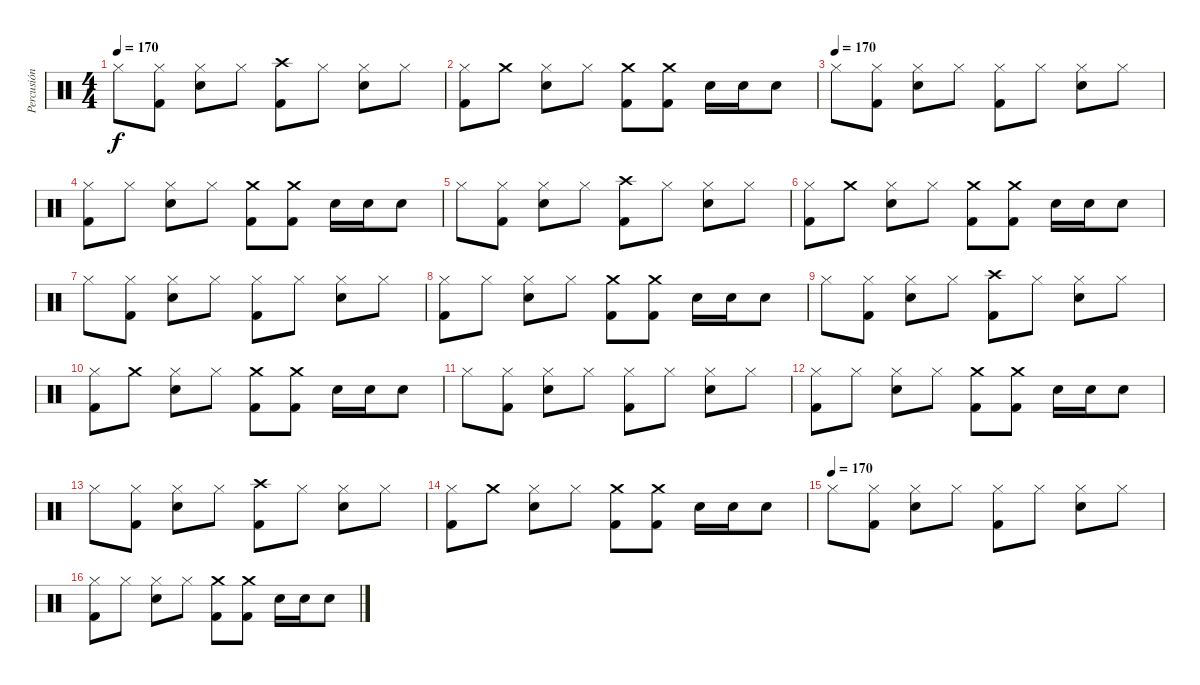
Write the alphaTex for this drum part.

\track ("Percusión" "Percusión") {instrument percussion}
\staff {score}
\articulation defaults
\ts (4 4)
\tempo 170
\clef neutral
\ks c "Hi-Hat (closed)".8{dy f}
("Hi-Hat (closed)" "Kick (hit) 2").8 ("Hi-Hat (closed)" "Electric Snare (hit)").8 "Hi-Hat (closed)".8 ("Crash high (hit)" "Kick (hit) 2").8 "Hi-Hat (closed)".8 ("Hi-Hat (closed)" "Electric Snare (hit)").8 "Hi-Hat (closed)".8 |
("Hi-Hat (closed)" "Kick (hit) 2").8 "Crash medium (hit)".8 ("Hi-Hat (closed)" "Electric Snare (hit)").8 "Hi-Hat (closed)".8 ("Crash medium (hit)" "Kick (hit) 2").8 ("Crash medium (hit)" "Kick (hit) 2").8 "Electric Snare (hit)".16 "Electric Snare (hit)".16 "Electric Snare (hit)".8 |
\tempo (170)
"Hi-Hat (closed)".8 ("Hi-Hat (closed)" "Kick (hit) 2").8 ("Hi-Hat (closed)" "Electric Snare (hit)").8 "Hi-Hat (closed)".8 ("Hi-Hat (closed)" "Kick (hit) 2").8 "Hi-Hat (closed)".8 ("Hi-Hat (closed)" "Electric Snare (hit)").8 "Hi-Hat (closed)".8 |
("Hi-Hat (closed)" "Kick (hit) 2").8 "Hi-Hat (closed)".8 ("Hi-Hat (closed)" "Electric Snare (hit)").8 "Hi-Hat (closed)".8 ("Crash medium (hit)" "Kick (hit) 2").8 ("Crash medium (hit)" "Kick (hit) 2").8 "Electric Snare (hit)".16 "Electric Snare (hit)".16 "Electric Snare (hit)".8 |
"Hi-Hat (closed)".8 ("Hi-Hat (closed)" "Kick (hit) 2").8 ("Hi-Hat (closed)" "Electric Snare (hit)").8 "Hi-Hat (closed)".8 ("Crash high (hit)" "Kick (hit) 2").8 "Hi-Hat (closed)".8 ("Hi-Hat (closed)" "Electric Snare (hit)").8 "Hi-Hat (closed)".8 |
("Hi-Hat (closed)" "Kick (hit) 2").8 "Crash medium (hit)".8 ("Hi-Hat (closed)" "Electric Snare (hit)").8 "Hi-Hat (closed)".8 ("Crash medium (hit)" "Kick (hit) 2").8 ("Crash medium (hit)" "Kick (hit) 2").8 "Electric Snare (hit)".16 "Electric Snare (hit)".16 "Electric Snare (hit)".8 |
"Hi-Hat (closed)".8 ("Hi-Hat (closed)" "Kick (hit) 2").8 ("Hi-Hat (closed)" "Electric Snare (hit)").8 "Hi-Hat (closed)".8 ("Hi-Hat (closed)" "Kick (hit) 2").8 "Hi-Hat (closed)".8 ("Hi-Hat (closed)" "Electric Snare (hit)").8 "Hi-Hat (closed)".8 |
("Hi-Hat (closed)" "Kick (hit) 2").8 "Hi-Hat (closed)".8 ("Hi-Hat (closed)" "Electric Snare (hit)").8 "Hi-Hat (closed)".8 ("Crash medium (hit)" "Kick (hit) 2").8 ("Crash medium (hit)" "Kick (hit) 2").8 "Electric Snare (hit)".16 "Electric Snare (hit)".16 "Electric Snare (hit)".8 |
"Hi-Hat (closed)".8 ("Hi-Hat (closed)" "Kick (hit) 2").8 ("Hi-Hat (closed)" "Electric Snare (hit)").8 "Hi-Hat (closed)".8 ("Crash high (hit)" "Kick (hit) 2").8 "Hi-Hat (closed)".8 ("Hi-Hat (closed)" "Electric Snare (hit)").8 "Hi-Hat (closed)".8 |
("Hi-Hat (closed)" "Kick (hit) 2").8 "Crash medium (hit)".8 ("Hi-Hat (closed)" "Electric Snare (hit)").8 "Hi-Hat (closed)".8 ("Crash medium (hit)" "Kick (hit) 2").8 ("Crash medium (hit)" "Kick (hit) 2").8 "Electric Snare (hit)".16 "Electric Snare (hit)".16 "Electric Snare (hit)".8 |
"Hi-Hat (closed)".8 ("Hi-Hat (closed)" "Kick (hit) 2").8 ("Hi-Hat (closed)" "Electric Snare (hit)").8 "Hi-Hat (closed)".8 ("Hi-Hat (closed)" "Kick (hit) 2").8 "Hi-Hat (closed)".8 ("Hi-Hat (closed)" "Electric Snare (hit)").8 "Hi-Hat (closed)".8 |
("Hi-Hat (closed)" "Kick (hit) 2").8 "Hi-Hat (closed)".8 ("Hi-Hat (closed)" "Electric Snare (hit)").8 "Hi-Hat (closed)".8 ("Crash medium (hit)" "Kick (hit) 2").8 ("Crash medium (hit)" "Kick (hit) 2").8 "Electric Snare (hit)".16 "Electric Snare (hit)".16 "Electric Snare (hit)".8 |
"Hi-Hat (closed)".8 ("Hi-Hat (closed)" "Kick (hit) 2").8 ("Hi-Hat (closed)" "Electric Snare (hit)").8 "Hi-Hat (closed)".8 ("Crash high (hit)" "Kick (hit) 2").8 "Hi-Hat (closed)".8 ("Hi-Hat (closed)" "Electric Snare (hit)").8 "Hi-Hat (closed)".8 |
("Hi-Hat (closed)" "Kick (hit) 2").8 "Crash medium (hit)".8 ("Hi-Hat (closed)" "Electric Snare (hit)").8 "Hi-Hat (closed)".8 ("Crash medium (hit)" "Kick (hit) 2").8 ("Crash medium (hit)" "Kick (hit) 2").8 "Electric Snare (hit)".16 "Electric Snare (hit)".16 "Electric Snare (hit)".8 |
\tempo (170)
"Hi-Hat (closed)".8 ("Hi-Hat (closed)" "Kick (hit) 2").8 ("Hi-Hat (closed)" "Electric Snare (hit)").8 "Hi-Hat (closed)".8 ("Hi-Hat (closed)" "Kick (hit) 2").8 "Hi-Hat (closed)".8 ("Hi-Hat (closed)" "Electric Snare (hit)").8 "Hi-Hat (closed)".8 |
("Hi-Hat (closed)" "Kick (hit) 2").8 "Hi-Hat (closed)".8 ("Hi-Hat (closed)" "Electric Snare (hit)").8 "Hi-Hat (closed)".8 ("Crash medium (hit)" "Kick (hit) 2").8 ("Crash medium (hit)" "Kick (hit) 2").8 "Electric Snare (hit)".16 "Electric Snare (hit)".16 "Electric Snare (hit)".8
